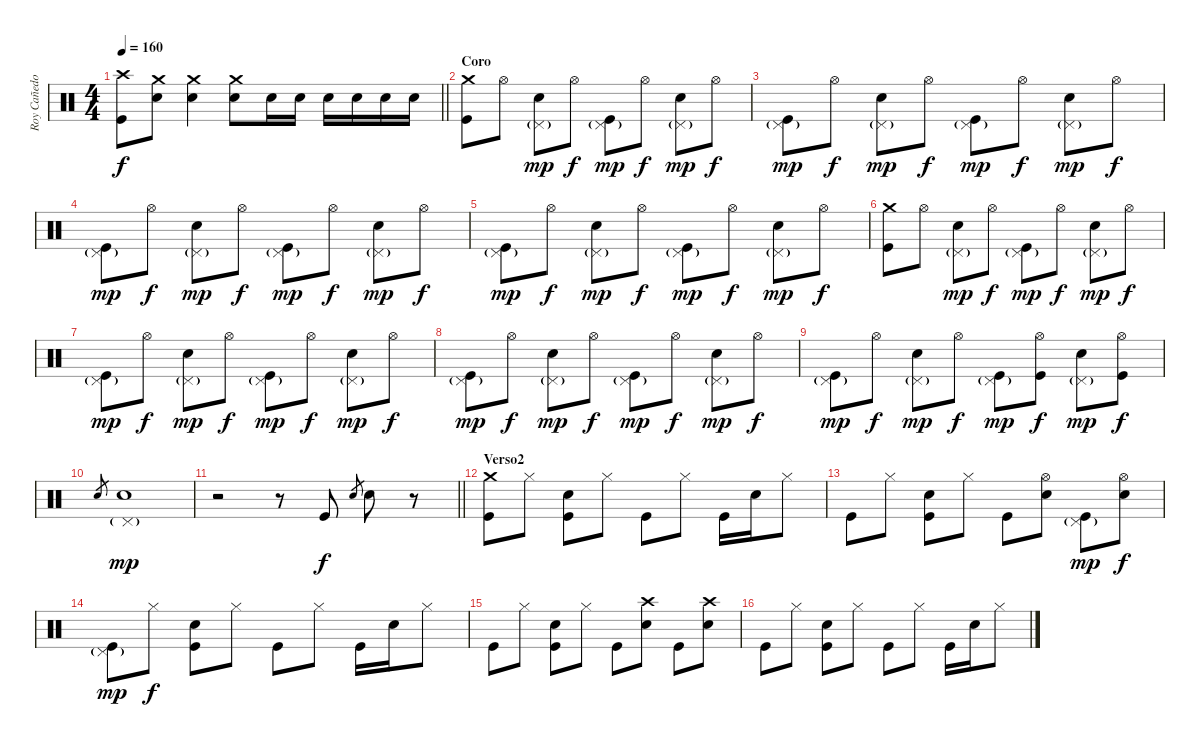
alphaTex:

\track ("Roy Cañedo" "Roy Cañedo") {instrument percussion}
\staff {score}
\articulation defaults
\ts (4 4)
\tempo 160
\clef neutral
\barLineRight lightlight
\ks c
("Crash high (hit)" "Kick (hit)").8{dy f} ("Crash medium (hit)" "Snare (hit) 2").8 ("Crash medium (hit)" "Snare (hit) 2").4 ("Crash medium (hit)" "Snare (hit) 2").8 "Snare (hit) 2".16 "Snare (hit) 2".16 "Snare (hit) 2".16 "Snare (hit) 2".16 "Snare (hit) 2".16 "Snare (hit) 2".16 |
\section ("" "Coro")
("Crash medium (hit)" "Kick (hit)").8 "Hi-Hat (open)".8 ("Pedal Hi-Hat (hit)"{g} "Snare (hit) 2").8{dy mp} "Hi-Hat (open)".8{dy f} ("Pedal Hi-Hat (hit)"{g} "Kick (hit)").8{dy mp} "Hi-Hat (open)".8{dy f} ("Pedal Hi-Hat (hit)"{g} "Snare (hit) 2").8{dy mp} "Hi-Hat (open)".8{dy f} |
("Pedal Hi-Hat (hit)"{g} "Kick (hit)").8{dy mp} "Hi-Hat (open)".8{dy f} ("Pedal Hi-Hat (hit)"{g} "Snare (hit) 2").8{dy mp} "Hi-Hat (open)".8{dy f} ("Pedal Hi-Hat (hit)"{g} "Kick (hit)").8{dy mp} "Hi-Hat (open)".8{dy f} ("Pedal Hi-Hat (hit)"{g} "Snare (hit) 2").8{dy mp} "Hi-Hat (open)".8{dy f} |
("Pedal Hi-Hat (hit)"{g} "Kick (hit)").8{dy mp} "Hi-Hat (open)".8{dy f} ("Pedal Hi-Hat (hit)"{g} "Snare (hit) 2").8{dy mp} "Hi-Hat (open)".8{dy f} ("Pedal Hi-Hat (hit)"{g} "Kick (hit)").8{dy mp} "Hi-Hat (open)".8{dy f} ("Pedal Hi-Hat (hit)"{g} "Snare (hit) 2").8{dy mp} "Hi-Hat (open)".8{dy f} |
("Pedal Hi-Hat (hit)"{g} "Kick (hit)").8{dy mp} "Hi-Hat (open)".8{dy f} ("Pedal Hi-Hat (hit)"{g} "Snare (hit) 2").8{dy mp} "Hi-Hat (open)".8{dy f} ("Pedal Hi-Hat (hit)"{g} "Kick (hit)").8{dy mp} "Hi-Hat (open)".8{dy f} ("Pedal Hi-Hat (hit)"{g} "Snare (hit) 2").8{dy mp} "Hi-Hat (open)".8{dy f} |
("Crash medium (hit)" "Kick (hit)").8 "Hi-Hat (open)".8 ("Pedal Hi-Hat (hit)"{g} "Snare (hit) 2").8{dy mp} "Hi-Hat (open)".8{dy f} ("Pedal Hi-Hat (hit)"{g} "Kick (hit)").8{dy mp} "Hi-Hat (open)".8{dy f} ("Pedal Hi-Hat (hit)"{g} "Snare (hit) 2").8{dy mp} "Hi-Hat (open)".8{dy f} |
("Pedal Hi-Hat (hit)"{g} "Kick (hit)").8{dy mp} "Hi-Hat (open)".8{dy f} ("Pedal Hi-Hat (hit)"{g} "Snare (hit) 2").8{dy mp} "Hi-Hat (open)".8{dy f} ("Pedal Hi-Hat (hit)"{g} "Kick (hit)").8{dy mp} "Hi-Hat (open)".8{dy f} ("Pedal Hi-Hat (hit)"{g} "Snare (hit) 2").8{dy mp} "Hi-Hat (open)".8{dy f} |
("Pedal Hi-Hat (hit)"{g} "Kick (hit)").8{dy mp} "Hi-Hat (open)".8{dy f} ("Pedal Hi-Hat (hit)"{g} "Snare (hit) 2").8{dy mp} "Hi-Hat (open)".8{dy f} ("Pedal Hi-Hat (hit)"{g} "Kick (hit)").8{dy mp} "Hi-Hat (open)".8{dy f} ("Pedal Hi-Hat (hit)"{g} "Snare (hit) 2").8{dy mp} "Hi-Hat (open)".8{dy f} |
("Pedal Hi-Hat (hit)"{g} "Kick (hit)").8{dy mp} "Hi-Hat (open)".8{dy f} ("Pedal Hi-Hat (hit)"{g} "Snare (hit) 2").8{dy mp} "Hi-Hat (open)".8{dy f} ("Pedal Hi-Hat (hit)"{g} "Kick (hit)").8{dy mp} ("Hi-Hat (open)" "Kick (hit)").8{dy f} ("Pedal Hi-Hat (hit)"{g} "Snare (hit) 2").8{dy mp} ("Hi-Hat (open)" "Kick (hit)").8{dy f} |
"Snare (hit) 2".8{gr} ("Pedal Hi-Hat (hit)"{g} "Snare (hit) 2").1{dy mp} |
\barLineRight lightlight
r.2 r.8 "Kick (hit)".8{dy f} "Snare (hit) 2".8{gr} "Snare (hit) 2".8 r.8 |
\section ("" "Verso2")
("Crash medium (hit)" "Kick (hit)").8 "Hi-Hat (closed)".8 ("Snare (hit) 2" "Kick (hit)").8 "Hi-Hat (closed)".8 "Kick (hit)".8 "Hi-Hat (closed)".8 "Kick (hit)".16 "Snare (hit) 2".16 "Hi-Hat (closed)".8 |
"Kick (hit)".8 "Hi-Hat (closed)".8 ("Snare (hit) 2" "Kick (hit)").8 "Hi-Hat (closed)".8 "Kick (hit)".8 ("Hi-Hat (open)" "Snare (hit) 2").8 ("Pedal Hi-Hat (hit)"{g} "Kick (hit)").8{dy mp} ("Hi-Hat (open)" "Snare (hit) 2").8{dy f} |
("Pedal Hi-Hat (hit)"{g} "Kick (hit)").8{dy mp} "Hi-Hat (closed)".8{dy f} ("Snare (hit) 2" "Kick (hit)").8 "Hi-Hat (closed)".8 "Kick (hit)".8 "Hi-Hat (closed)".8 "Kick (hit)".16 "Snare (hit) 2".16 "Hi-Hat (closed)".8 |
"Kick (hit)".8 "Hi-Hat (closed)".8 ("Snare (hit) 2" "Kick (hit)").8 "Hi-Hat (closed)".8 "Kick (hit)".8 ("Crash high (hit)" "Snare (hit) 2").8 "Kick (hit)".8 ("Crash high (hit)" "Snare (hit) 2").8 |
"Kick (hit)".8 "Hi-Hat (closed)".8 ("Snare (hit) 2" "Kick (hit)").8 "Hi-Hat (closed)".8 "Kick (hit)".8 "Hi-Hat (closed)".8 "Kick (hit)".16 "Snare (hit) 2".16 "Hi-Hat (closed)".8
